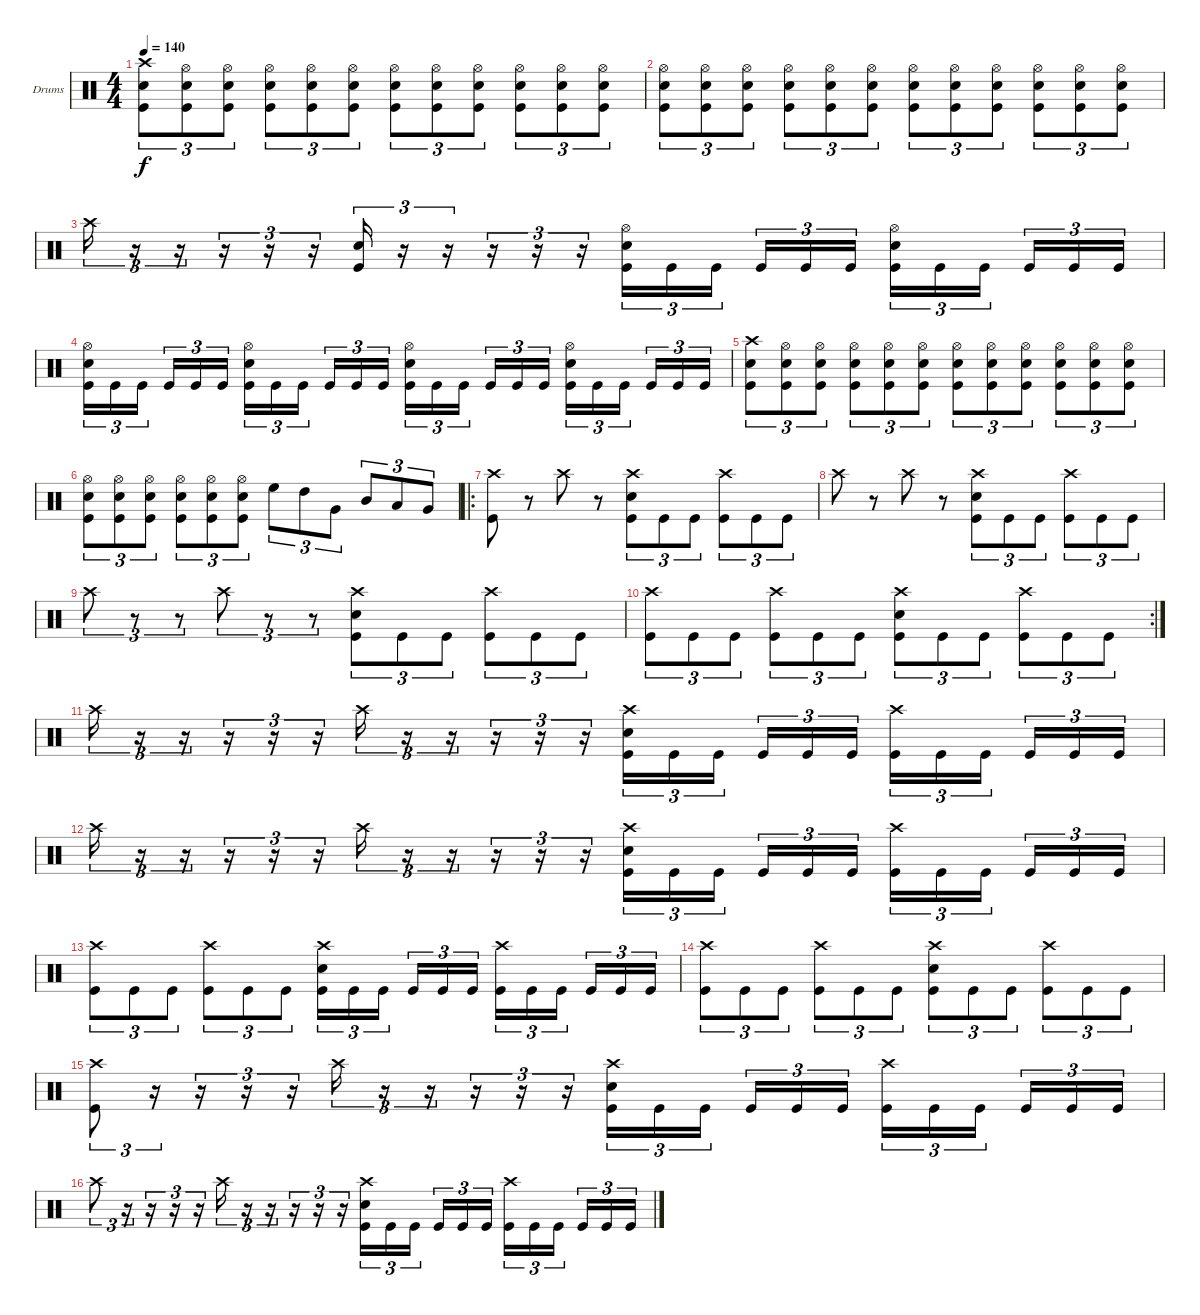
\bracketExtendMode groupsimilarinstruments
\firstSystemTrackNameOrientation horizontal
\otherSystemsTrackNameOrientation horizontal
\track ("Drumkit" "Drums") {instrument percussion}
\staff {score}
\articulation defaults
\ts (4 4)
\tempo 140
\clef neutral
\ks c
("Kick (hit)" "Snare (hit) 2" "Crash high (hit)").8{tu (3 2) dy f} ("Kick (hit)" "Snare (hit) 2" "Hi-Hat (open)").8{tu (3 2)} ("Kick (hit)" "Snare (hit) 2" "Hi-Hat (open)").8{tu (3 2)} ("Kick (hit)" "Snare (hit) 2" "Hi-Hat (open)").8{tu (3 2)} ("Kick (hit)" "Snare (hit) 2" "Hi-Hat (open)").8{tu (3 2)} ("Kick (hit)" "Snare (hit) 2" "Hi-Hat (open)").8{tu (3 2)} ("Kick (hit)" "Snare (hit) 2" "Hi-Hat (open)").8{tu (3 2)} ("Kick (hit)" "Snare (hit) 2" "Hi-Hat (open)").8{tu (3 2)} ("Kick (hit)" "Snare (hit) 2" "Hi-Hat (open)").8{tu (3 2)} ("Kick (hit)" "Snare (hit) 2" "Hi-Hat (open)").8{tu (3 2)} ("Kick (hit)" "Snare (hit) 2" "Hi-Hat (open)").8{tu (3 2)} ("Kick (hit)" "Snare (hit) 2" "Hi-Hat (open)").8{tu (3 2)} |
("Kick (hit)" "Snare (hit) 2" "Hi-Hat (open)").8{tu (3 2)} ("Kick (hit)" "Snare (hit) 2" "Hi-Hat (open)").8{tu (3 2)} ("Kick (hit)" "Snare (hit) 2" "Hi-Hat (open)").8{tu (3 2)} ("Kick (hit)" "Snare (hit) 2" "Hi-Hat (open)").8{tu (3 2)} ("Kick (hit)" "Snare (hit) 2" "Hi-Hat (open)").8{tu (3 2)} ("Kick (hit)" "Snare (hit) 2" "Hi-Hat (open)").8{tu (3 2)} ("Kick (hit)" "Snare (hit) 2" "Hi-Hat (open)").8{tu (3 2)} ("Kick (hit)" "Snare (hit) 2" "Hi-Hat (open)").8{tu (3 2)} ("Kick (hit)" "Snare (hit) 2" "Hi-Hat (open)").8{tu (3 2)} ("Kick (hit)" "Snare (hit) 2" "Hi-Hat (open)").8{tu (3 2)} ("Kick (hit)" "Snare (hit) 2" "Hi-Hat (open)").8{tu (3 2)} ("Kick (hit)" "Snare (hit) 2" "Hi-Hat (open)").8{tu (3 2)} |
"Crash high (hit)".16{tu (3 2)} r.16{tu (3 2)} r.16{tu (3 2)} r.16{tu (3 2)} r.16{tu (3 2)} r.16{tu (3 2)} ("Kick (hit)" "Snare (hit) 2").16{tu (3 2)} r.16{tu (3 2)} r.16{tu (3 2)} r.16{tu (3 2)} r.16{tu (3 2)} r.16{tu (3 2)} ("Kick (hit)" "Snare (hit) 2" "Hi-Hat (open)").16{tu (3 2)} "Kick (hit)".16{tu (3 2)} "Kick (hit)".16{tu (3 2)} "Kick (hit)".16{tu (3 2)} "Kick (hit)".16{tu (3 2)} "Kick (hit)".16{tu (3 2)} ("Kick (hit)" "Snare (hit) 2" "Hi-Hat (open)").16{tu (3 2)} "Kick (hit)".16{tu (3 2)} "Kick (hit)".16{tu (3 2)} "Kick (hit)".16{tu (3 2)} "Kick (hit)".16{tu (3 2)} "Kick (hit)".16{tu (3 2)} |
("Kick (hit)" "Snare (hit) 2" "Hi-Hat (open)").16{tu (3 2)} "Kick (hit)".16{tu (3 2)} "Kick (hit)".16{tu (3 2)} "Kick (hit)".16{tu (3 2)} "Kick (hit)".16{tu (3 2)} "Kick (hit)".16{tu (3 2)} ("Kick (hit)" "Snare (hit) 2" "Hi-Hat (open)").16{tu (3 2)} "Kick (hit)".16{tu (3 2)} "Kick (hit)".16{tu (3 2)} "Kick (hit)".16{tu (3 2)} "Kick (hit)".16{tu (3 2)} "Kick (hit)".16{tu (3 2)} ("Kick (hit)" "Snare (hit) 2" "Hi-Hat (open)").16{tu (3 2)} "Kick (hit)".16{tu (3 2)} "Kick (hit)".16{tu (3 2)} "Kick (hit)".16{tu (3 2)} "Kick (hit)".16{tu (3 2)} "Kick (hit)".16{tu (3 2)} ("Kick (hit)" "Hi-Hat (open)" "Snare (hit) 2").16{tu (3 2)} "Kick (hit)".16{tu (3 2)} "Kick (hit)".16{tu (3 2)} "Kick (hit)".16{tu (3 2)} "Kick (hit)".16{tu (3 2)} "Kick (hit)".16{tu (3 2)} |
("Kick (hit)" "Snare (hit) 2" "Crash high (hit)").8{tu (3 2)} ("Kick (hit)" "Snare (hit) 2" "Hi-Hat (open)").8{tu (3 2)} ("Kick (hit)" "Snare (hit) 2" "Hi-Hat (open)").8{tu (3 2)} ("Kick (hit)" "Snare (hit) 2" "Hi-Hat (open)").8{tu (3 2)} ("Kick (hit)" "Snare (hit) 2" "Hi-Hat (open)").8{tu (3 2)} ("Kick (hit)" "Snare (hit) 2" "Hi-Hat (open)").8{tu (3 2)} ("Kick (hit)" "Snare (hit) 2" "Hi-Hat (open)").8{tu (3 2)} ("Kick (hit)" "Snare (hit) 2" "Hi-Hat (open)").8{tu (3 2)} ("Kick (hit)" "Snare (hit) 2" "Hi-Hat (open)").8{tu (3 2)} ("Kick (hit)" "Snare (hit) 2" "Hi-Hat (open)").8{tu (3 2)} ("Kick (hit)" "Snare (hit) 2" "Hi-Hat (open)").8{tu (3 2)} ("Kick (hit)" "Snare (hit) 2" "Hi-Hat (open)").8{tu (3 2)} |
("Kick (hit)" "Snare (hit) 2" "Hi-Hat (open)").8{tu (3 2)} ("Kick (hit)" "Snare (hit) 2" "Hi-Hat (open)").8{tu (3 2)} ("Kick (hit)" "Snare (hit) 2" "Hi-Hat (open)").8{tu (3 2)} ("Kick (hit)" "Snare (hit) 2" "Hi-Hat (open)").8{tu (3 2)} ("Kick (hit)" "Snare (hit) 2" "Hi-Hat (open)").8{tu (3 2)} ("Kick (hit)" "Snare (hit) 2" "Hi-Hat (open)").8{tu (3 2)} "High Floor Tom (hit)".8{tu (3 2)} "High Tom (hit)".8{tu (3 2)} "Very Low Tom (hit)".8{tu (3 2)} "Mid Tom (hit)".8{tu (3 2)} "Low Tom (hit)".8{tu (3 2)} "Very Low Tom (hit)".8{tu (3 2)} |
\ro
("Crash high (hit)" "Kick (hit)").8 r.8 "Crash high (hit)".8 r.8 ("Crash high (hit)" "Kick (hit)" "Snare (hit) 2").8{tu (3 2)} "Kick (hit)".8{tu (3 2)} "Kick (hit)".8{tu (3 2)} ("Crash high (hit)" "Kick (hit)").8{tu (3 2)} "Kick (hit)".8{tu (3 2)} "Kick (hit)".8{tu (3 2)} |
"Crash high (hit)".8 r.8 "Crash high (hit)".8 r.8 ("Crash high (hit)" "Kick (hit)" "Snare (hit) 2").8{tu (3 2)} "Kick (hit)".8{tu (3 2)} "Kick (hit)".8{tu (3 2)} ("Crash high (hit)" "Kick (hit)").8{tu (3 2)} "Kick (hit)".8{tu (3 2)} "Kick (hit)".8{tu (3 2)} |
"Crash high (hit)".8{tu (3 2)} r.8{tu (3 2)} r.8{tu (3 2)} "Crash high (hit)".8{tu (3 2)} r.8{tu (3 2)} r.8{tu (3 2)} ("Crash high (hit)" "Kick (hit)" "Snare (hit) 2").8{tu (3 2)} "Kick (hit)".8{tu (3 2)} "Kick (hit)".8{tu (3 2)} ("Crash high (hit)" "Kick (hit)").8{tu (3 2)} "Kick (hit)".8{tu (3 2)} "Kick (hit)".8{tu (3 2)} |
\rc 2
("Crash high (hit)" "Kick (hit)").8{tu (3 2)} "Kick (hit)".8{tu (3 2)} "Kick (hit)".8{tu (3 2)} ("Crash high (hit)" "Kick (hit)").8{tu (3 2)} "Kick (hit)".8{tu (3 2)} "Kick (hit)".8{tu (3 2)} ("Crash high (hit)" "Kick (hit)" "Snare (hit) 2").8{tu (3 2)} "Kick (hit)".8{tu (3 2)} "Kick (hit)".8{tu (3 2)} ("Crash high (hit)" "Kick (hit)").8{tu (3 2)} "Kick (hit)".8{tu (3 2)} "Kick (hit)".8{tu (3 2)} |
"Crash high (hit)".16{tu (3 2)} r.16{tu (3 2)} r.16{tu (3 2)} r.16{tu (3 2)} r.16{tu (3 2)} r.16{tu (3 2)} "Crash high (hit)".16{tu (3 2)} r.16{tu (3 2)} r.16{tu (3 2)} r.16{tu (3 2)} r.16{tu (3 2)} r.16{tu (3 2)} ("Crash high (hit)" "Kick (hit)" "Snare (hit) 2").16{tu (3 2)} "Kick (hit)".16{tu (3 2)} "Kick (hit)".16{tu (3 2)} "Kick (hit)".16{tu (3 2)} "Kick (hit)".16{tu (3 2)} "Kick (hit)".16{tu (3 2)} ("Kick (hit)" "Crash high (hit)").16{tu (3 2)} "Kick (hit)".16{tu (3 2)} "Kick (hit)".16{tu (3 2)} "Kick (hit)".16{tu (3 2)} "Kick (hit)".16{tu (3 2)} "Kick (hit)".16{tu (3 2)} |
"Crash high (hit)".16{tu (3 2)} r.16{tu (3 2)} r.16{tu (3 2)} r.16{tu (3 2)} r.16{tu (3 2)} r.16{tu (3 2)} "Crash high (hit)".16{tu (3 2)} r.16{tu (3 2)} r.16{tu (3 2)} r.16{tu (3 2)} r.16{tu (3 2)} r.16{tu (3 2)} ("Crash high (hit)" "Kick (hit)" "Snare (hit) 2").16{tu (3 2)} "Kick (hit)".16{tu (3 2)} "Kick (hit)".16{tu (3 2)} "Kick (hit)".16{tu (3 2)} "Kick (hit)".16{tu (3 2)} "Kick (hit)".16{tu (3 2)} ("Kick (hit)" "Crash high (hit)").16{tu (3 2)} "Kick (hit)".16{tu (3 2)} "Kick (hit)".16{tu (3 2)} "Kick (hit)".16{tu (3 2)} "Kick (hit)".16{tu (3 2)} "Kick (hit)".16{tu (3 2)} |
("Kick (hit)" "Crash high (hit)").8{tu (3 2)} "Kick (hit)".8{tu (3 2)} "Kick (hit)".8{tu (3 2)} ("Kick (hit)" "Crash high (hit)").8{tu (3 2)} "Kick (hit)".8{tu (3 2)} "Kick (hit)".8{tu (3 2)} ("Crash high (hit)" "Kick (hit)" "Snare (hit) 2").16{tu (3 2)} "Kick (hit)".16{tu (3 2)} "Kick (hit)".16{tu (3 2)} "Kick (hit)".16{tu (3 2)} "Kick (hit)".16{tu (3 2)} "Kick (hit)".16{tu (3 2)} ("Kick (hit)" "Crash high (hit)").16{tu (3 2)} "Kick (hit)".16{tu (3 2)} "Kick (hit)".16{tu (3 2)} "Kick (hit)".16{tu (3 2)} "Kick (hit)".16{tu (3 2)} "Kick (hit)".16{tu (3 2)} |
("Kick (hit)" "Crash high (hit)").8{tu (3 2)} "Kick (hit)".8{tu (3 2)} "Kick (hit)".8{tu (3 2)} ("Kick (hit)" "Crash high (hit)").8{tu (3 2)} "Kick (hit)".8{tu (3 2)} "Kick (hit)".8{tu (3 2)} ("Kick (hit)" "Crash high (hit)" "Snare (hit) 2").8{tu (3 2)} "Kick (hit)".8{tu (3 2)} "Kick (hit)".8{tu (3 2)} ("Kick (hit)" "Crash high (hit)").8{tu (3 2)} "Kick (hit)".8{tu (3 2)} "Kick (hit)".8{tu (3 2)} |
("Kick (hit)" "Crash high (hit)").8{tu (3 2)} r.16{tu (3 2)} r.16{tu (3 2)} r.16{tu (3 2)} r.16{tu (3 2)} "Crash high (hit)".16{tu (3 2)} r.16{tu (3 2)} r.16{tu (3 2)} r.16{tu (3 2)} r.16{tu (3 2)} r.16{tu (3 2)} ("Crash high (hit)" "Kick (hit)" "Snare (hit) 2").16{tu (3 2)} "Kick (hit)".16{tu (3 2)} "Kick (hit)".16{tu (3 2)} "Kick (hit)".16{tu (3 2)} "Kick (hit)".16{tu (3 2)} "Kick (hit)".16{tu (3 2)} ("Kick (hit)" "Crash high (hit)").16{tu (3 2)} "Kick (hit)".16{tu (3 2)} "Kick (hit)".16{tu (3 2)} "Kick (hit)".16{tu (3 2)} "Kick (hit)".16{tu (3 2)} "Kick (hit)".16{tu (3 2)} |
"Crash high (hit)".8{tu (3 2)} r.16{tu (3 2)} r.16{tu (3 2)} r.16{tu (3 2)} r.16{tu (3 2)} "Crash high (hit)".16{tu (3 2)} r.16{tu (3 2)} r.16{tu (3 2)} r.16{tu (3 2)} r.16{tu (3 2)} r.16{tu (3 2)} ("Crash high (hit)" "Kick (hit)" "Snare (hit) 2").16{tu (3 2)} "Kick (hit)".16{tu (3 2)} "Kick (hit)".16{tu (3 2)} "Kick (hit)".16{tu (3 2)} "Kick (hit)".16{tu (3 2)} "Kick (hit)".16{tu (3 2)} ("Kick (hit)" "Crash high (hit)").16{tu (3 2)} "Kick (hit)".16{tu (3 2)} "Kick (hit)".16{tu (3 2)} "Kick (hit)".16{tu (3 2)} "Kick (hit)".16{tu (3 2)} "Kick (hit)".16{tu (3 2)}
